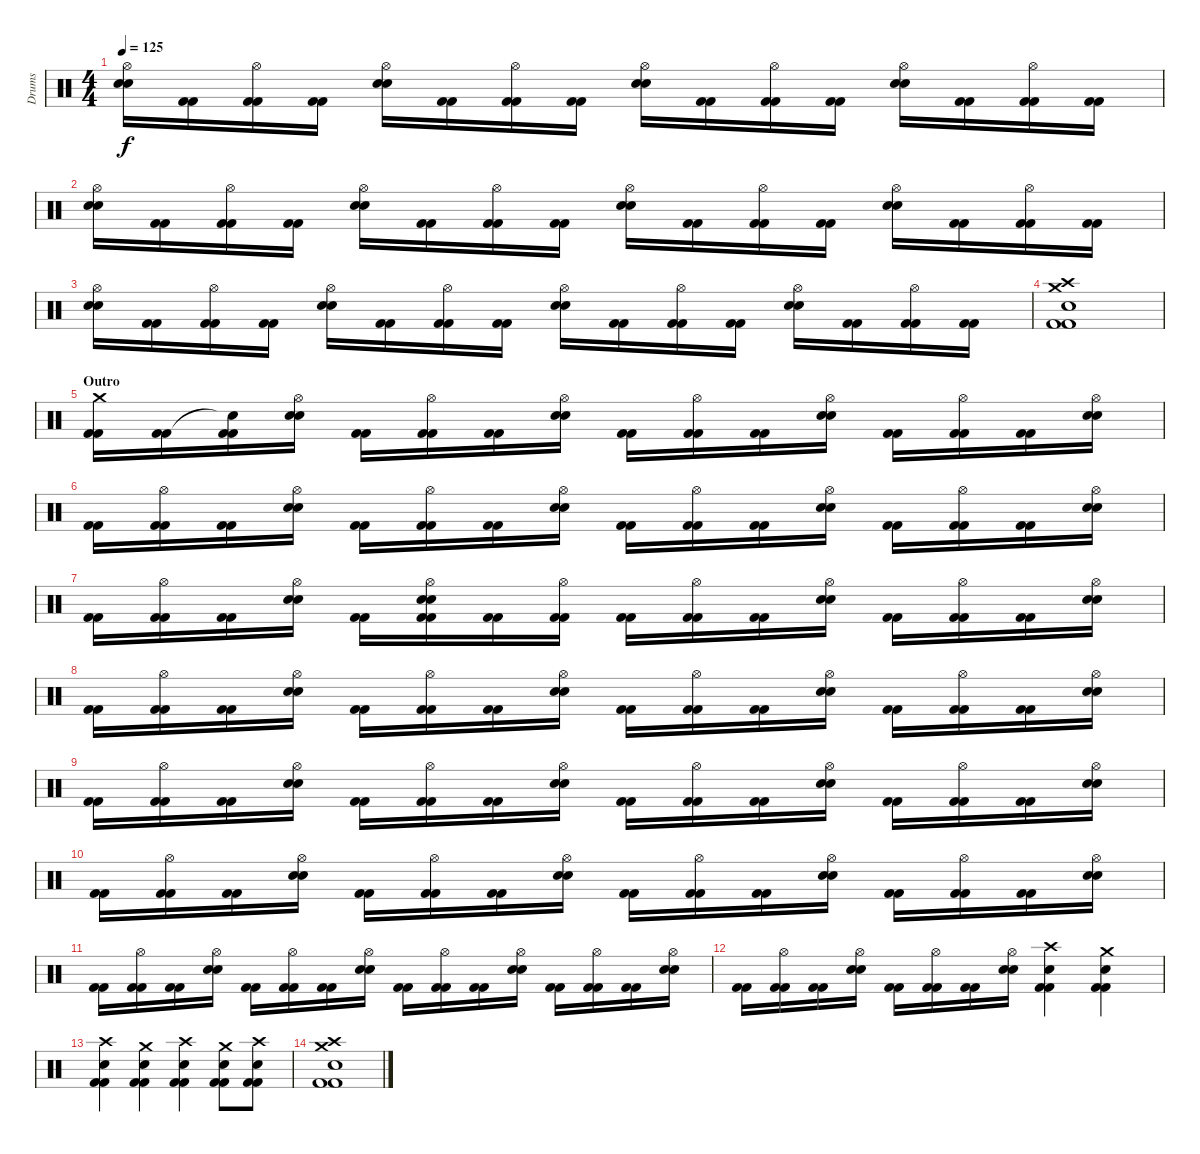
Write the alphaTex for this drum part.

\track ("Drums" "Drums") {instrument percussion}
\staff {score}
\articulation defaults
\ts (4 4)
\tempo 125
\clef neutral
\ks c
("Hi-Hat (open)" "Snare (hit) 2" "Snare (hit) 2").16{dy f} ("Kick (hit) 2" "Kick (hit) 2").16 ("Hi-Hat (open)" "Kick (hit) 2" "Kick (hit) 2").16 ("Kick (hit) 2" "Kick (hit) 2").16 ("Hi-Hat (open)" "Snare (hit) 2" "Snare (hit) 2").16 ("Kick (hit) 2" "Kick (hit) 2").16 ("Hi-Hat (open)" "Kick (hit) 2" "Kick (hit) 2").16 ("Kick (hit) 2" "Kick (hit) 2").16 ("Hi-Hat (open)" "Snare (hit) 2" "Snare (hit) 2").16 ("Kick (hit) 2" "Kick (hit) 2").16 ("Hi-Hat (open)" "Kick (hit) 2" "Kick (hit) 2").16 ("Kick (hit) 2" "Kick (hit) 2").16 ("Hi-Hat (open)" "Snare (hit) 2" "Snare (hit) 2").16 ("Kick (hit) 2" "Kick (hit) 2").16 ("Hi-Hat (open)" "Kick (hit) 2" "Kick (hit) 2").16 ("Kick (hit) 2" "Kick (hit) 2").16 |
("Hi-Hat (open)" "Snare (hit) 2" "Snare (hit) 2").16 ("Kick (hit) 2" "Kick (hit) 2").16 ("Hi-Hat (open)" "Kick (hit) 2" "Kick (hit) 2").16 ("Kick (hit) 2" "Kick (hit) 2").16 ("Hi-Hat (open)" "Snare (hit) 2" "Snare (hit) 2").16 ("Kick (hit) 2" "Kick (hit) 2").16 ("Hi-Hat (open)" "Kick (hit) 2" "Kick (hit) 2").16 ("Kick (hit) 2" "Kick (hit) 2").16 ("Hi-Hat (open)" "Snare (hit) 2" "Snare (hit) 2").16 ("Kick (hit) 2" "Kick (hit) 2").16 ("Hi-Hat (open)" "Kick (hit) 2" "Kick (hit) 2").16 ("Kick (hit) 2" "Kick (hit) 2").16 ("Hi-Hat (open)" "Snare (hit) 2" "Snare (hit) 2").16 ("Kick (hit) 2" "Kick (hit) 2").16 ("Hi-Hat (open)" "Kick (hit) 2" "Kick (hit) 2").16 ("Kick (hit) 2" "Kick (hit) 2").16 |
("Hi-Hat (open)" "Snare (hit) 2" "Snare (hit) 2").16 ("Kick (hit) 2" "Kick (hit) 2").16 ("Hi-Hat (open)" "Kick (hit) 2" "Kick (hit) 2").16 ("Kick (hit) 2" "Kick (hit) 2").16 ("Hi-Hat (open)" "Snare (hit) 2" "Snare (hit) 2").16 ("Kick (hit) 2" "Kick (hit) 2").16 ("Hi-Hat (open)" "Kick (hit) 2" "Kick (hit) 2").16 ("Kick (hit) 2" "Kick (hit) 2").16 ("Hi-Hat (open)" "Snare (hit) 2" "Snare (hit) 2").16 ("Kick (hit) 2" "Kick (hit) 2").16 ("Hi-Hat (open)" "Kick (hit) 2" "Kick (hit) 2").16 ("Kick (hit) 2" "Kick (hit) 2").16 ("Hi-Hat (open)" "Snare (hit) 2" "Snare (hit) 2").16 ("Kick (hit) 2" "Kick (hit) 2").16 ("Hi-Hat (open)" "Kick (hit) 2" "Kick (hit) 2").16 ("Kick (hit) 2" "Kick (hit) 2").16 |
("Crash high (hit)" "Crash medium (hit)" "Snare (hit) 2" "Kick (hit) 2" "Kick (hit) 2").1 |
\section ("" "Outro")
("Crash medium (hit)" "Kick (hit) 2" "Kick (hit) 2").16 ("Kick (hit) 2" "Kick (hit) 2").16 ("Snare (hit)"{t} "Kick (hit) 2" "Kick (hit) 2").16 ("Hi-Hat (open)" "Snare (hit) 2" "Snare (hit) 2").16 ("Kick (hit) 2" "Kick (hit) 2").16 ("Hi-Hat (open)" "Kick (hit) 2" "Kick (hit) 2").16 ("Kick (hit) 2" "Kick (hit) 2").16 ("Hi-Hat (open)" "Snare (hit) 2" "Snare (hit) 2").16 ("Kick (hit) 2" "Kick (hit) 2").16 ("Hi-Hat (open)" "Kick (hit) 2" "Kick (hit) 2").16 ("Kick (hit) 2" "Kick (hit) 2").16 ("Hi-Hat (open)" "Snare (hit) 2" "Snare (hit) 2").16 ("Kick (hit) 2" "Kick (hit) 2").16 ("Hi-Hat (open)" "Kick (hit) 2" "Kick (hit) 2").16 ("Kick (hit) 2" "Kick (hit) 2").16 ("Hi-Hat (open)" "Snare (hit) 2" "Snare (hit) 2").16 |
("Kick (hit) 2" "Kick (hit) 2").16 ("Hi-Hat (open)" "Kick (hit) 2" "Kick (hit) 2").16 ("Kick (hit) 2" "Kick (hit) 2").16 ("Hi-Hat (open)" "Snare (hit) 2" "Snare (hit) 2").16 ("Kick (hit) 2" "Kick (hit) 2").16 ("Hi-Hat (open)" "Kick (hit) 2" "Kick (hit) 2").16 ("Kick (hit) 2" "Kick (hit) 2").16 ("Hi-Hat (open)" "Snare (hit) 2" "Snare (hit) 2").16 ("Kick (hit) 2" "Kick (hit) 2").16 ("Hi-Hat (open)" "Kick (hit) 2" "Kick (hit) 2").16 ("Kick (hit) 2" "Kick (hit) 2").16 ("Hi-Hat (open)" "Snare (hit) 2" "Snare (hit) 2").16 ("Kick (hit) 2" "Kick (hit) 2").16 ("Hi-Hat (open)" "Kick (hit) 2" "Kick (hit) 2").16 ("Kick (hit) 2" "Kick (hit) 2").16 ("Hi-Hat (open)" "Snare (hit) 2" "Snare (hit) 2").16 |
("Kick (hit) 2" "Kick (hit) 2").16 ("Hi-Hat (open)" "Kick (hit) 2" "Kick (hit) 2").16 ("Kick (hit) 2" "Kick (hit) 2").16 ("Hi-Hat (open)" "Snare (hit) 2" "Snare (hit) 2").16 ("Kick (hit) 2" "Kick (hit) 2").16 ("Hi-Hat (open)" "Snare (hit) 2" "Snare (hit) 2" "Kick (hit) 2" "Kick (hit) 2").16 ("Kick (hit) 2" "Kick (hit) 2").16 ("Hi-Hat (open)" "Kick (hit) 2" "Kick (hit) 2").16 ("Kick (hit) 2" "Kick (hit) 2").16 ("Hi-Hat (open)" "Kick (hit) 2" "Kick (hit) 2").16 ("Kick (hit) 2" "Kick (hit) 2").16 ("Hi-Hat (open)" "Snare (hit) 2" "Snare (hit) 2").16 ("Kick (hit) 2" "Kick (hit) 2").16 ("Hi-Hat (open)" "Kick (hit) 2" "Kick (hit) 2").16 ("Kick (hit) 2" "Kick (hit) 2").16 ("Hi-Hat (open)" "Snare (hit) 2" "Snare (hit) 2").16 |
("Kick (hit) 2" "Kick (hit) 2").16 ("Hi-Hat (open)" "Kick (hit) 2" "Kick (hit) 2").16 ("Kick (hit) 2" "Kick (hit) 2").16 ("Hi-Hat (open)" "Snare (hit) 2" "Snare (hit) 2").16 ("Kick (hit) 2" "Kick (hit) 2").16 ("Hi-Hat (open)" "Kick (hit) 2" "Kick (hit) 2").16 ("Kick (hit) 2" "Kick (hit) 2").16 ("Hi-Hat (open)" "Snare (hit) 2" "Snare (hit) 2").16 ("Kick (hit) 2" "Kick (hit) 2").16 ("Hi-Hat (open)" "Kick (hit) 2" "Kick (hit) 2").16 ("Kick (hit) 2" "Kick (hit) 2").16 ("Hi-Hat (open)" "Snare (hit) 2" "Snare (hit) 2").16 ("Kick (hit) 2" "Kick (hit) 2").16 ("Hi-Hat (open)" "Kick (hit) 2" "Kick (hit) 2").16 ("Kick (hit) 2" "Kick (hit) 2").16 ("Hi-Hat (open)" "Snare (hit) 2" "Snare (hit) 2").16 |
("Kick (hit) 2" "Kick (hit) 2").16 ("Hi-Hat (open)" "Kick (hit) 2" "Kick (hit) 2").16 ("Kick (hit) 2" "Kick (hit) 2").16 ("Hi-Hat (open)" "Snare (hit) 2" "Snare (hit) 2").16 ("Kick (hit) 2" "Kick (hit) 2").16 ("Hi-Hat (open)" "Kick (hit) 2" "Kick (hit) 2").16 ("Kick (hit) 2" "Kick (hit) 2").16 ("Hi-Hat (open)" "Snare (hit) 2" "Snare (hit) 2").16 ("Kick (hit) 2" "Kick (hit) 2").16 ("Hi-Hat (open)" "Kick (hit) 2" "Kick (hit) 2").16 ("Kick (hit) 2" "Kick (hit) 2").16 ("Hi-Hat (open)" "Snare (hit) 2" "Snare (hit) 2").16 ("Kick (hit) 2" "Kick (hit) 2").16 ("Hi-Hat (open)" "Kick (hit) 2" "Kick (hit) 2").16 ("Kick (hit) 2" "Kick (hit) 2").16 ("Hi-Hat (open)" "Snare (hit) 2" "Snare (hit) 2").16 |
("Kick (hit) 2" "Kick (hit) 2").16 ("Hi-Hat (open)" "Kick (hit) 2" "Kick (hit) 2").16 ("Kick (hit) 2" "Kick (hit) 2").16 ("Hi-Hat (open)" "Snare (hit) 2" "Snare (hit) 2").16 ("Kick (hit) 2" "Kick (hit) 2").16 ("Hi-Hat (open)" "Kick (hit) 2" "Kick (hit) 2").16 ("Kick (hit) 2" "Kick (hit) 2").16 ("Hi-Hat (open)" "Snare (hit) 2" "Snare (hit) 2").16 ("Kick (hit) 2" "Kick (hit) 2").16 ("Hi-Hat (open)" "Kick (hit) 2" "Kick (hit) 2").16 ("Kick (hit) 2" "Kick (hit) 2").16 ("Hi-Hat (open)" "Snare (hit) 2" "Snare (hit) 2").16 ("Kick (hit) 2" "Kick (hit) 2").16 ("Hi-Hat (open)" "Kick (hit) 2" "Kick (hit) 2").16 ("Kick (hit) 2" "Kick (hit) 2").16 ("Hi-Hat (open)" "Snare (hit) 2" "Snare (hit) 2").16 |
("Kick (hit) 2" "Kick (hit) 2").16 ("Hi-Hat (open)" "Kick (hit) 2" "Kick (hit) 2").16 ("Kick (hit) 2" "Kick (hit) 2").16 ("Hi-Hat (open)" "Snare (hit) 2" "Snare (hit) 2").16 ("Kick (hit) 2" "Kick (hit) 2").16 ("Hi-Hat (open)" "Kick (hit) 2" "Kick (hit) 2").16 ("Kick (hit) 2" "Kick (hit) 2").16 ("Hi-Hat (open)" "Snare (hit) 2" "Snare (hit) 2").16 ("Kick (hit) 2" "Kick (hit) 2").16 ("Hi-Hat (open)" "Kick (hit) 2" "Kick (hit) 2").16 ("Kick (hit) 2" "Kick (hit) 2").16 ("Hi-Hat (open)" "Snare (hit) 2" "Snare (hit) 2").16 ("Kick (hit) 2" "Kick (hit) 2").16 ("Hi-Hat (open)" "Kick (hit) 2" "Kick (hit) 2").16 ("Kick (hit) 2" "Kick (hit) 2").16 ("Hi-Hat (open)" "Snare (hit) 2" "Snare (hit) 2").16 |
("Kick (hit) 2" "Kick (hit) 2").16 ("Hi-Hat (open)" "Kick (hit) 2" "Kick (hit) 2").16 ("Kick (hit) 2" "Kick (hit) 2").16 ("Hi-Hat (open)" "Snare (hit) 2" "Snare (hit) 2").16 ("Kick (hit) 2" "Kick (hit) 2").16 ("Hi-Hat (open)" "Kick (hit) 2" "Kick (hit) 2").16 ("Kick (hit) 2" "Kick (hit) 2").16 ("Hi-Hat (open)" "Snare (hit) 2" "Snare (hit) 2").16 ("Crash high (hit)" "Snare (hit) 2" "Kick (hit) 2" "Kick (hit) 2").4 ("Crash medium (hit)" "Snare (hit) 2" "Kick (hit) 2" "Kick (hit) 2").4 |
("Crash high (hit)" "Snare (hit) 2" "Kick (hit) 2" "Kick (hit) 2").4 ("Crash medium (hit)" "Snare (hit) 2" "Kick (hit) 2" "Kick (hit) 2").4 ("Crash high (hit)" "Snare (hit) 2" "Kick (hit) 2" "Kick (hit) 2").4 ("Crash medium (hit)" "Snare (hit) 2" "Kick (hit) 2" "Kick (hit) 2").8 ("Crash high (hit)" "Snare (hit) 2" "Kick (hit) 2" "Kick (hit) 2").8 |
("Crash high (hit)" "Crash medium (hit)" "Snare (hit) 2" "Kick (hit) 2" "Kick (hit) 2").1
